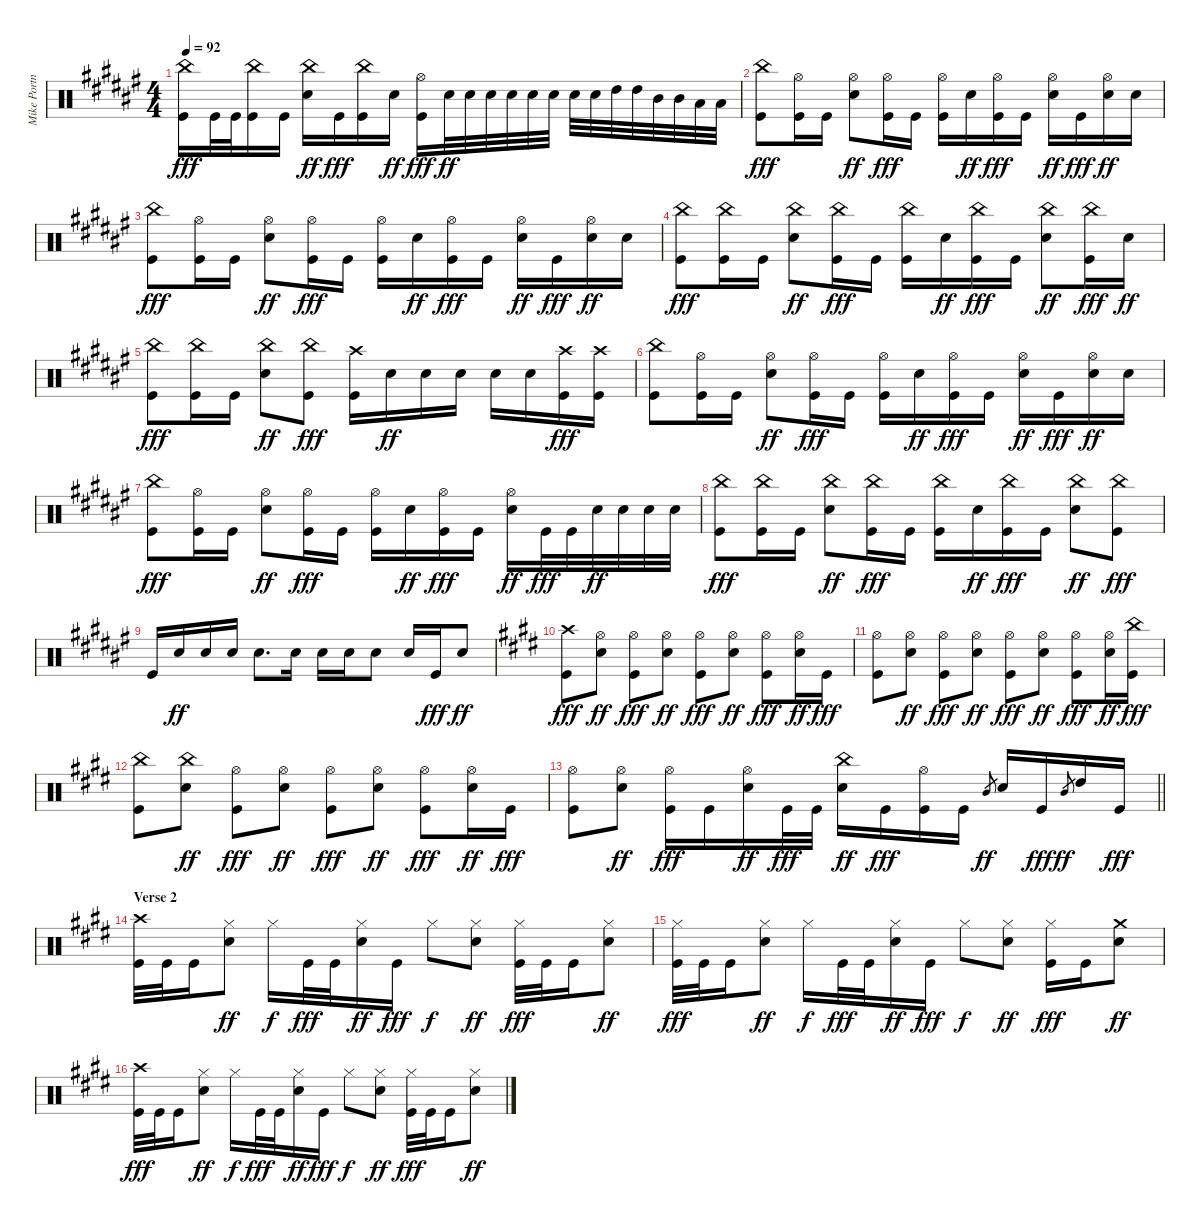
\track ("Mike Portnoy" "Mike Portn") {instrument percussion}
\staff {score}
\articulation defaults
\ts (4 4)
\tempo 92
\clef neutral
\ks f#
("China (hit)" "Kick (hit)").16{dy fff} "Kick (hit)".32 "Kick (hit)".32 ("China (hit)" "Kick (hit)").16 "Kick (hit)".16 ("China (hit)" "Electric Snare (hit)").16{dy ff} "Kick (hit)".16{dy fff} ("China (hit)" "Kick (hit)").16 "Electric Snare (hit)".16{dy ff} ("Hi-Hat (open)" "Kick (hit)").16{dy fff} "Electric Snare (hit)".32{dy ff} "Electric Snare (hit)".32 "Electric Snare (hit)".32 "Electric Snare (hit)".32 "Electric Snare (hit)".32 "Electric Snare (hit)".32 "Electric Snare (hit)".32 "Electric Snare (hit)".32 "High Tom (hit)".32 "High Tom (hit)".32 "Mid Tom (hit)".32 "Mid Tom (hit)".32 "Low Tom (hit)".32 "Low Tom (hit)".32 |
("China (hit)" "Kick (hit)").8{dy fff} ("Hi-Hat (open)" "Kick (hit)").16 "Kick (hit)".16 ("Hi-Hat (open)" "Electric Snare (hit)").8{dy ff} ("Hi-Hat (open)" "Kick (hit)").16{dy fff} "Kick (hit)".16 ("Hi-Hat (open)" "Kick (hit)").16 "Electric Snare (hit)".16{dy ff} ("Hi-Hat (open)" "Kick (hit)").16{dy fff} "Kick (hit)".16 ("Hi-Hat (open)" "Electric Snare (hit)").16{dy ff} "Kick (hit)".16{dy fff} ("Hi-Hat (open)" "Electric Snare (hit)").16{dy ff} "Electric Snare (hit)".16 |
("China (hit)" "Kick (hit)").8{dy fff} ("Hi-Hat (open)" "Kick (hit)").16 "Kick (hit)".16 ("Hi-Hat (open)" "Electric Snare (hit)").8{dy ff} ("Hi-Hat (open)" "Kick (hit)").16{dy fff} "Kick (hit)".16 ("Hi-Hat (open)" "Kick (hit)").16 "Electric Snare (hit)".16{dy ff} ("Hi-Hat (open)" "Kick (hit)").16{dy fff} "Kick (hit)".16 ("Hi-Hat (open)" "Electric Snare (hit)").16{dy ff} "Kick (hit)".16{dy fff} ("Hi-Hat (open)" "Electric Snare (hit)").16{dy ff} "Electric Snare (hit)".16 |
("China (hit)" "Kick (hit)").8{dy fff} ("China (hit)" "Kick (hit)").16 "Kick (hit)".16 ("China (hit)" "Electric Snare (hit)").8{dy ff} ("China (hit)" "Kick (hit)").16{dy fff} "Kick (hit)".16 ("China (hit)" "Kick (hit)").16 "Electric Snare (hit)".16{dy ff} ("China (hit)" "Kick (hit)").16{dy fff} "Kick (hit)".16 ("China (hit)" "Electric Snare (hit)").8{dy ff} ("China (hit)" "Kick (hit)").16{dy fff} "Electric Snare (hit)".16{dy ff} |
("China (hit)" "Kick (hit)").8{dy fff} ("China (hit)" "Kick (hit)").16 "Kick (hit)".16 ("China (hit)" "Electric Snare (hit)").8{dy ff} ("China (hit)" "Kick (hit)").8{dy fff} ("Crash high (hit)" "Kick (hit)").16 "Electric Snare (hit)".16{dy ff} "Electric Snare (hit)".16 "Electric Snare (hit)".16 "Electric Snare (hit)".16 "Electric Snare (hit)".16 ("Crash high (hit)" "Kick (hit)").16{dy fff} ("Crash high (hit)" "Kick (hit)").16 |
("China (hit)" "Kick (hit)").8 ("Hi-Hat (open)" "Kick (hit)").16 "Kick (hit)".16 ("Hi-Hat (open)" "Electric Snare (hit)").8{dy ff} ("Hi-Hat (open)" "Kick (hit)").16{dy fff} "Kick (hit)".16 ("Hi-Hat (open)" "Kick (hit)").16 "Electric Snare (hit)".16{dy ff} ("Hi-Hat (open)" "Kick (hit)").16{dy fff} "Kick (hit)".16 ("Hi-Hat (open)" "Electric Snare (hit)").16{dy ff} "Kick (hit)".16{dy fff} ("Hi-Hat (open)" "Electric Snare (hit)").16{dy ff} "Electric Snare (hit)".16 |
("China (hit)" "Kick (hit)").8{dy fff} ("Hi-Hat (open)" "Kick (hit)").16 "Kick (hit)".16 ("Hi-Hat (open)" "Electric Snare (hit)").8{dy ff} ("Hi-Hat (open)" "Kick (hit)").16{dy fff} "Kick (hit)".16 ("Hi-Hat (open)" "Kick (hit)").16 "Electric Snare (hit)".16{dy ff} ("Hi-Hat (open)" "Kick (hit)").16{dy fff} "Kick (hit)".16 ("Hi-Hat (open)" "Electric Snare (hit)").16{dy ff} "Kick (hit)".32{dy fff} "Kick (hit)".32 "Electric Snare (hit)".32{dy ff} "Electric Snare (hit)".32 "Electric Snare (hit)".32 "Electric Snare (hit)".32 |
("China (hit)" "Kick (hit)").8{dy fff} ("China (hit)" "Kick (hit)").16 "Kick (hit)".16 ("China (hit)" "Electric Snare (hit)").8{dy ff} ("China (hit)" "Kick (hit)").16{dy fff} "Kick (hit)".16 ("China (hit)" "Kick (hit)").16 "Electric Snare (hit)".16{dy ff} ("China (hit)" "Kick (hit)").16{dy fff} "Kick (hit)".16 ("China (hit)" "Electric Snare (hit)").8{dy ff} ("China (hit)" "Kick (hit)").8{dy fff} |
"Kick (hit)".16 "Electric Snare (hit)".16{dy ff} "Electric Snare (hit)".16 "Electric Snare (hit)".16 "Electric Snare (hit)".8{d} "Electric Snare (hit)".16 "Electric Snare (hit)".16 "Electric Snare (hit)".16 "Electric Snare (hit)".8 "Electric Snare (hit)".16 "Kick (hit)".16{dy fff} "Electric Snare (hit)".8{dy ff} |
\ks e
("Crash high (hit)" "Kick (hit)").8{dy fff} ("Hi-Hat (open)" "Electric Snare (hit)").8{dy ff} ("Hi-Hat (open)" "Kick (hit)").8{dy fff} ("Hi-Hat (open)" "Electric Snare (hit)").8{dy ff} ("Hi-Hat (open)" "Kick (hit)").8{dy fff} ("Hi-Hat (open)" "Electric Snare (hit)").8{dy ff} ("Hi-Hat (open)" "Kick (hit)").8{dy fff} ("Hi-Hat (open)" "Electric Snare (hit)").16{dy ff} "Kick (hit)".16{dy fff} |
("Hi-Hat (open)" "Kick (hit)").8 ("Hi-Hat (open)" "Electric Snare (hit)").8{dy ff} ("Hi-Hat (open)" "Kick (hit)").8{dy fff} ("Hi-Hat (open)" "Electric Snare (hit)").8{dy ff} ("Hi-Hat (open)" "Kick (hit)").8{dy fff} ("Hi-Hat (open)" "Electric Snare (hit)").8{dy ff} ("Hi-Hat (open)" "Kick (hit)").8{dy fff} ("Hi-Hat (open)" "Electric Snare (hit)").16{dy ff} ("China (hit)" "Kick (hit)").16{dy fff} |
("China (hit)" "Kick (hit)").8 ("China (hit)" "Electric Snare (hit)").8{dy ff} ("Hi-Hat (open)" "Kick (hit)").8{dy fff} ("Hi-Hat (open)" "Electric Snare (hit)").8{dy ff} ("Hi-Hat (open)" "Kick (hit)").8{dy fff} ("Hi-Hat (open)" "Electric Snare (hit)").8{dy ff} ("Hi-Hat (open)" "Kick (hit)").8{dy fff} ("Hi-Hat (open)" "Electric Snare (hit)").16{dy ff} "Kick (hit)".16{dy fff} |
\barLineRight lightlight
("Hi-Hat (open)" "Kick (hit)").8 ("Hi-Hat (open)" "Electric Snare (hit)").8{dy ff} ("Hi-Hat (open)" "Kick (hit)").16{dy fff} "Kick (hit)".16 ("Hi-Hat (open)" "Electric Snare (hit)").16{dy ff} "Kick (hit)".32{dy fff} "Kick (hit)".32 ("China (hit)" "Electric Snare (hit)").16{dy ff} "Kick (hit)".16{dy fff} ("Hi-Hat (open)" "Kick (hit)").16 "Kick (hit)".16 "Mid Tom (hit)".8{gr dy ff} "Electric Snare (hit)".16 "Kick (hit)".16{dy fff} "Mid Tom (hit)".8{gr dy ff} "High Tom (hit)".16 "Kick (hit)".16{dy fff} |
\section ("" "Verse 2")
("Crash high (hit)" "Kick (hit)").32 "Kick (hit)".32 "Kick (hit)".16 ("Hi-Hat (closed)" "Electric Snare (hit)").8{dy ff} "Hi-Hat (closed)".16{dy f} "Kick (hit)".32{dy fff} "Kick (hit)".32 ("Hi-Hat (closed)" "Electric Snare (hit)").16{dy ff} "Kick (hit)".16{dy fff} "Hi-Hat (closed)".8{dy f} ("Hi-Hat (closed)" "Electric Snare (hit)").8{dy ff} ("Hi-Hat (closed)" "Kick (hit)").32{dy fff} "Kick (hit)".32 "Kick (hit)".16 ("Hi-Hat (closed)" "Electric Snare (hit)").8{dy ff} |
("Hi-Hat (closed)" "Kick (hit)").32{dy fff} "Kick (hit)".32 "Kick (hit)".16 ("Hi-Hat (closed)" "Electric Snare (hit)").8{dy ff} "Hi-Hat (closed)".16{dy f} "Kick (hit)".32{dy fff} "Kick (hit)".32 ("Hi-Hat (closed)" "Electric Snare (hit)").16{dy ff} "Kick (hit)".16{dy fff} "Hi-Hat (closed)".8{dy f} ("Hi-Hat (closed)" "Electric Snare (hit)").8{dy ff} ("Hi-Hat (closed)" "Kick (hit)").16{dy fff} "Kick (hit)".16 ("Crash medium (hit)" "Electric Snare (hit)").8{dy ff} |
("Crash high (hit)" "Kick (hit)").32{dy fff} "Kick (hit)".32 "Kick (hit)".16 ("Hi-Hat (closed)" "Electric Snare (hit)").8{dy ff} "Hi-Hat (closed)".16{dy f} "Kick (hit)".32{dy fff} "Kick (hit)".32 ("Hi-Hat (closed)" "Electric Snare (hit)").16{dy ff} "Kick (hit)".16{dy fff} "Hi-Hat (closed)".8{dy f} ("Hi-Hat (closed)" "Electric Snare (hit)").8{dy ff} ("Hi-Hat (closed)" "Kick (hit)").32{dy fff} "Kick (hit)".32 "Kick (hit)".16 ("Hi-Hat (closed)" "Electric Snare (hit)").8{dy ff}
